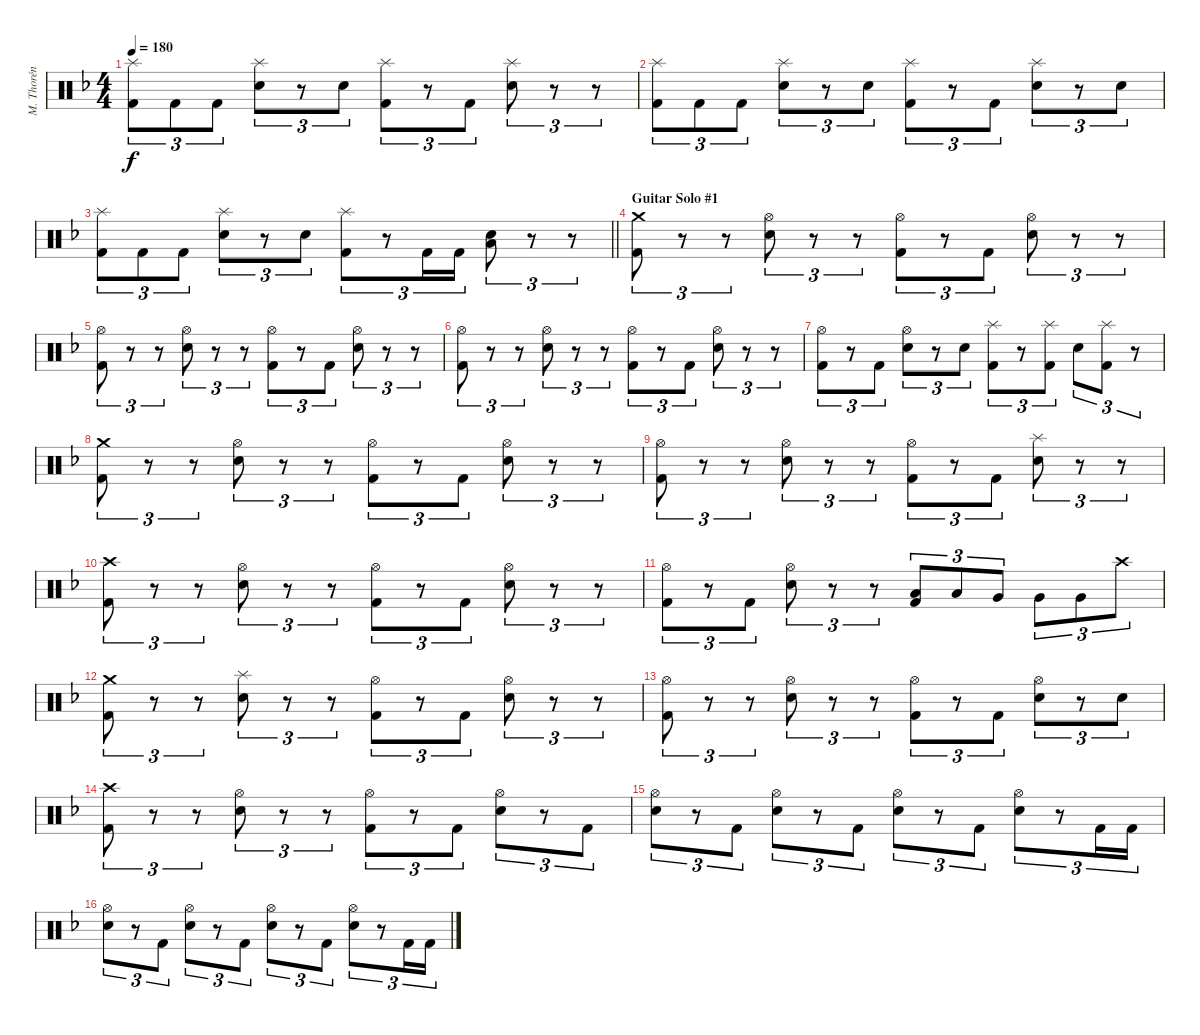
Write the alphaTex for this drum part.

\track ("M. Thorén (Drums)" "M. Thorén ") {instrument percussion}
\staff {score}
\articulation defaults
\ts (4 4)
\tempo 180
\clef neutral
\ks dminor
("Splash (hit)" "Kick (hit) 2").8{tu (3 2) dy f} "Kick (hit) 2".8{tu (3 2)} "Kick (hit) 2".8{tu (3 2)} ("Splash (hit)" "Electric Snare (hit)").8{tu (3 2)} r.8{tu (3 2)} "Electric Snare (hit)".8{tu (3 2)} ("Splash (hit)" "Kick (hit) 2").8{tu (3 2)} r.8{tu (3 2)} "Kick (hit) 2".8{tu (3 2)} ("Splash (hit)" "Electric Snare (hit)").8{tu (3 2)} r.8{tu (3 2)} r.8{tu (3 2)} |
("Splash (hit)" "Kick (hit) 2").8{tu (3 2)} "Kick (hit) 2".8{tu (3 2)} "Kick (hit) 2".8{tu (3 2)} ("Splash (hit)" "Electric Snare (hit)").8{tu (3 2)} r.8{tu (3 2)} "Electric Snare (hit)".8{tu (3 2)} ("Splash (hit)" "Kick (hit) 2").8{tu (3 2)} r.8{tu (3 2)} "Kick (hit) 2".8{tu (3 2)} ("Splash (hit)" "Electric Snare (hit)").8{tu (3 2)} r.8{tu (3 2)} "Electric Snare (hit)".8{tu (3 2)} |
\barLineRight lightlight
("Splash (hit)" "Kick (hit) 2").8{tu (3 2)} "Kick (hit) 2".8{tu (3 2)} "Kick (hit) 2".8{tu (3 2)} ("Splash (hit)" "Electric Snare (hit)").8{tu (3 2)} r.8{tu (3 2)} "Electric Snare (hit)".8{tu (3 2)} ("Splash (hit)" "Kick (hit) 2").8{tu (3 2)} r.8{tu (3 2)} "Kick (hit) 2".16{tu (3 2)} "Kick (hit) 2".16{tu (3 2)} ("Electric Snare (hit)" "Low Floor Tom (hit)").8{tu (3 2)} r.8{tu (3 2)} r.8{tu (3 2)} |
\section ("" "Guitar Solo #1")
("Crash medium (hit)" "Kick (hit) 2").8{tu (3 2)} r.8{tu (3 2)} r.8{tu (3 2)} ("Hi-Hat (open)" "Electric Snare (hit)").8{tu (3 2)} r.8{tu (3 2)} r.8{tu (3 2)} ("Hi-Hat (open)" "Kick (hit) 2").8{tu (3 2)} r.8{tu (3 2)} "Kick (hit) 2".8{tu (3 2)} ("Hi-Hat (open)" "Electric Snare (hit)").8{tu (3 2)} r.8{tu (3 2)} r.8{tu (3 2)} |
("Hi-Hat (open)" "Kick (hit) 2").8{tu (3 2)} r.8{tu (3 2)} r.8{tu (3 2)} ("Hi-Hat (open)" "Electric Snare (hit)").8{tu (3 2)} r.8{tu (3 2)} r.8{tu (3 2)} ("Hi-Hat (open)" "Kick (hit) 2").8{tu (3 2)} r.8{tu (3 2)} "Kick (hit) 2".8{tu (3 2)} ("Hi-Hat (open)" "Electric Snare (hit)").8{tu (3 2)} r.8{tu (3 2)} r.8{tu (3 2)} |
("Hi-Hat (open)" "Kick (hit) 2").8{tu (3 2)} r.8{tu (3 2)} r.8{tu (3 2)} ("Hi-Hat (open)" "Electric Snare (hit)").8{tu (3 2)} r.8{tu (3 2)} r.8{tu (3 2)} ("Hi-Hat (open)" "Kick (hit) 2").8{tu (3 2)} r.8{tu (3 2)} "Kick (hit) 2".8{tu (3 2)} ("Hi-Hat (open)" "Electric Snare (hit)").8{tu (3 2)} r.8{tu (3 2)} r.8{tu (3 2)} |
("Hi-Hat (open)" "Kick (hit) 2").8{tu (3 2)} r.8{tu (3 2)} "Kick (hit) 2".8{tu (3 2)} ("Hi-Hat (open)" "Electric Snare (hit)").8{tu (3 2)} r.8{tu (3 2)} "Electric Snare (hit)".8{tu (3 2)} ("Splash (hit)" "Kick (hit) 2").8{tu (3 2)} r.8{tu (3 2)} ("Splash (hit)" "Kick (hit) 2").8{tu (3 2)} "Electric Snare (hit)".8{tu (3 2)} ("Splash (hit)" "Kick (hit) 2").8{tu (3 2)} r.8{tu (3 2)} |
("Crash medium (hit)" "Kick (hit) 2").8{tu (3 2)} r.8{tu (3 2)} r.8{tu (3 2)} ("Hi-Hat (open)" "Electric Snare (hit)").8{tu (3 2)} r.8{tu (3 2)} r.8{tu (3 2)} ("Hi-Hat (open)" "Kick (hit) 2").8{tu (3 2)} r.8{tu (3 2)} "Kick (hit) 2".8{tu (3 2)} ("Hi-Hat (open)" "Electric Snare (hit)").8{tu (3 2)} r.8{tu (3 2)} r.8{tu (3 2)} |
("Hi-Hat (open)" "Kick (hit) 2").8{tu (3 2)} r.8{tu (3 2)} r.8{tu (3 2)} ("Hi-Hat (open)" "Electric Snare (hit)").8{tu (3 2)} r.8{tu (3 2)} r.8{tu (3 2)} ("Hi-Hat (open)" "Kick (hit) 2").8{tu (3 2)} r.8{tu (3 2)} "Kick (hit) 2".8{tu (3 2)} ("Splash (hit)" "Electric Snare (hit)").8{tu (3 2)} r.8{tu (3 2)} r.8{tu (3 2)} |
("Crash high (hit)" "Kick (hit) 2").8{tu (3 2)} r.8{tu (3 2)} r.8{tu (3 2)} ("Hi-Hat (open)" "Electric Snare (hit)").8{tu (3 2)} r.8{tu (3 2)} r.8{tu (3 2)} ("Hi-Hat (open)" "Kick (hit) 2").8{tu (3 2)} r.8{tu (3 2)} "Kick (hit) 2".8{tu (3 2)} ("Hi-Hat (open)" "Electric Snare (hit)").8{tu (3 2)} r.8{tu (3 2)} r.8{tu (3 2)} |
("Hi-Hat (open)" "Kick (hit) 2").8{tu (3 2)} r.8{tu (3 2)} "Kick (hit) 2".8{tu (3 2)} ("Hi-Hat (open)" "Electric Snare (hit)").8{tu (3 2)} r.8{tu (3 2)} r.8{tu (3 2)} ("Low Tom (hit)" "Kick (hit) 2").8{tu (3 2)} "Low Tom (hit)".8{tu (3 2)} "Very Low Tom (hit)".8{tu (3 2)} "Very Low Tom (hit)".8{tu (3 2)} "Very Low Tom (hit)".8{tu (3 2)} "Crash high (hit)".8{tu (3 2)} |
("Crash medium (hit)" "Kick (hit) 2").8{tu (3 2)} r.8{tu (3 2)} r.8{tu (3 2)} ("Splash (hit)" "Electric Snare (hit)").8{tu (3 2)} r.8{tu (3 2)} r.8{tu (3 2)} ("Hi-Hat (open)" "Kick (hit) 2").8{tu (3 2)} r.8{tu (3 2)} "Kick (hit) 2".8{tu (3 2)} ("Hi-Hat (open)" "Electric Snare (hit)").8{tu (3 2)} r.8{tu (3 2)} r.8{tu (3 2)} |
("Hi-Hat (open)" "Kick (hit) 2").8{tu (3 2)} r.8{tu (3 2)} r.8{tu (3 2)} ("Hi-Hat (open)" "Electric Snare (hit)").8{tu (3 2)} r.8{tu (3 2)} r.8{tu (3 2)} ("Hi-Hat (open)" "Kick (hit) 2").8{tu (3 2)} r.8{tu (3 2)} "Kick (hit) 2".8{tu (3 2)} ("Hi-Hat (open)" "Electric Snare (hit)").8{tu (3 2)} r.8{tu (3 2)} "Electric Snare (hit)".8{tu (3 2)} |
("Crash high (hit)" "Kick (hit) 2").8{tu (3 2)} r.8{tu (3 2)} r.8{tu (3 2)} ("Hi-Hat (open)" "Electric Snare (hit)").8{tu (3 2)} r.8{tu (3 2)} r.8{tu (3 2)} ("Hi-Hat (open)" "Kick (hit) 2").8{tu (3 2)} r.8{tu (3 2)} "Kick (hit) 2".8{tu (3 2)} ("Hi-Hat (open)" "Electric Snare (hit)").8{tu (3 2)} r.8{tu (3 2)} "Kick (hit) 2".8{tu (3 2)} |
("Hi-Hat (open)" "Electric Snare (hit)").8{tu (3 2)} r.8{tu (3 2)} "Kick (hit) 2".8{tu (3 2)} ("Hi-Hat (open)" "Electric Snare (hit)").8{tu (3 2)} r.8{tu (3 2)} "Kick (hit) 2".8{tu (3 2)} ("Hi-Hat (open)" "Electric Snare (hit)").8{tu (3 2)} r.8{tu (3 2)} "Kick (hit) 2".8{tu (3 2)} ("Hi-Hat (open)" "Electric Snare (hit)").8{tu (3 2)} r.8{tu (3 2)} "Kick (hit) 2".16{tu (3 2)} "Kick (hit) 2".16{tu (3 2)} |
("Hi-Hat (open)" "Electric Snare (hit)").8{tu (3 2)} r.8{tu (3 2)} "Kick (hit) 2".8{tu (3 2)} ("Hi-Hat (open)" "Electric Snare (hit)").8{tu (3 2)} r.8{tu (3 2)} "Kick (hit) 2".8{tu (3 2)} ("Hi-Hat (open)" "Electric Snare (hit)").8{tu (3 2)} r.8{tu (3 2)} "Kick (hit) 2".8{tu (3 2)} ("Hi-Hat (open)" "Electric Snare (hit)").8{tu (3 2)} r.8{tu (3 2)} "Kick (hit) 2".16{tu (3 2)} "Kick (hit) 2".16{tu (3 2)}
